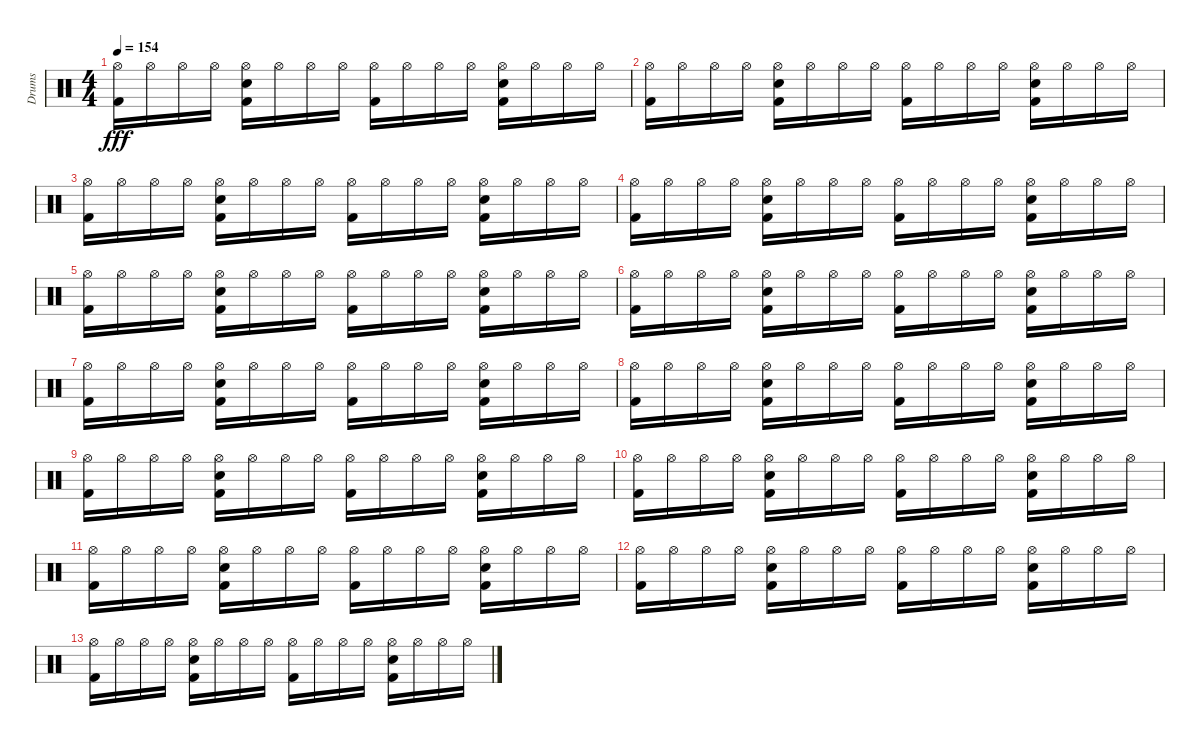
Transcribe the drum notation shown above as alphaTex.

\track ("Drums" "Drums") {instrument percussion}
\staff {score}
\articulation defaults
\ts (4 4)
\tempo 154
\clef neutral
\ks c
("Hi-Hat (open)" "Kick (hit) 2").16{dy fff} "Hi-Hat (open)".16 "Hi-Hat (open)".16 "Hi-Hat (open)".16 ("Hi-Hat (open)" "Snare (hit) 2" "Kick (hit) 2").16 "Hi-Hat (open)".16 "Hi-Hat (open)".16 "Hi-Hat (open)".16 ("Hi-Hat (open)" "Kick (hit) 2").16 "Hi-Hat (open)".16 "Hi-Hat (open)".16 "Hi-Hat (open)".16 ("Hi-Hat (open)" "Snare (hit) 2" "Kick (hit) 2").16 "Hi-Hat (open)".16 "Hi-Hat (open)".16 "Hi-Hat (open)".16 |
("Hi-Hat (open)" "Kick (hit) 2").16 "Hi-Hat (open)".16 "Hi-Hat (open)".16 "Hi-Hat (open)".16 ("Hi-Hat (open)" "Snare (hit) 2" "Kick (hit) 2").16 "Hi-Hat (open)".16 "Hi-Hat (open)".16 "Hi-Hat (open)".16 ("Hi-Hat (open)" "Kick (hit) 2").16 "Hi-Hat (open)".16 "Hi-Hat (open)".16 "Hi-Hat (open)".16 ("Hi-Hat (open)" "Snare (hit) 2" "Kick (hit) 2").16 "Hi-Hat (open)".16 "Hi-Hat (open)".16 "Hi-Hat (open)".16 |
("Hi-Hat (open)" "Kick (hit) 2").16 "Hi-Hat (open)".16 "Hi-Hat (open)".16 "Hi-Hat (open)".16 ("Hi-Hat (open)" "Snare (hit) 2" "Kick (hit) 2").16 "Hi-Hat (open)".16 "Hi-Hat (open)".16 "Hi-Hat (open)".16 ("Hi-Hat (open)" "Kick (hit) 2").16 "Hi-Hat (open)".16 "Hi-Hat (open)".16 "Hi-Hat (open)".16 ("Hi-Hat (open)" "Snare (hit) 2" "Kick (hit) 2").16 "Hi-Hat (open)".16 "Hi-Hat (open)".16 "Hi-Hat (open)".16 |
("Hi-Hat (open)" "Kick (hit) 2").16 "Hi-Hat (open)".16 "Hi-Hat (open)".16 "Hi-Hat (open)".16 ("Hi-Hat (open)" "Snare (hit) 2" "Kick (hit) 2").16 "Hi-Hat (open)".16 "Hi-Hat (open)".16 "Hi-Hat (open)".16 ("Hi-Hat (open)" "Kick (hit) 2").16 "Hi-Hat (open)".16 "Hi-Hat (open)".16 "Hi-Hat (open)".16 ("Hi-Hat (open)" "Snare (hit) 2" "Kick (hit) 2").16 "Hi-Hat (open)".16 "Hi-Hat (open)".16 "Hi-Hat (open)".16 |
("Hi-Hat (open)" "Kick (hit) 2").16 "Hi-Hat (open)".16 "Hi-Hat (open)".16 "Hi-Hat (open)".16 ("Hi-Hat (open)" "Snare (hit) 2" "Kick (hit) 2").16 "Hi-Hat (open)".16 "Hi-Hat (open)".16 "Hi-Hat (open)".16 ("Hi-Hat (open)" "Kick (hit) 2").16 "Hi-Hat (open)".16 "Hi-Hat (open)".16 "Hi-Hat (open)".16 ("Hi-Hat (open)" "Snare (hit) 2" "Kick (hit) 2").16 "Hi-Hat (open)".16 "Hi-Hat (open)".16 "Hi-Hat (open)".16 |
("Hi-Hat (open)" "Kick (hit) 2").16 "Hi-Hat (open)".16 "Hi-Hat (open)".16 "Hi-Hat (open)".16 ("Hi-Hat (open)" "Snare (hit) 2" "Kick (hit) 2").16 "Hi-Hat (open)".16 "Hi-Hat (open)".16 "Hi-Hat (open)".16 ("Hi-Hat (open)" "Kick (hit) 2").16 "Hi-Hat (open)".16 "Hi-Hat (open)".16 "Hi-Hat (open)".16 ("Hi-Hat (open)" "Snare (hit) 2" "Kick (hit) 2").16 "Hi-Hat (open)".16 "Hi-Hat (open)".16 "Hi-Hat (open)".16 |
("Hi-Hat (open)" "Kick (hit) 2").16 "Hi-Hat (open)".16 "Hi-Hat (open)".16 "Hi-Hat (open)".16 ("Hi-Hat (open)" "Snare (hit) 2" "Kick (hit) 2").16 "Hi-Hat (open)".16 "Hi-Hat (open)".16 "Hi-Hat (open)".16 ("Hi-Hat (open)" "Kick (hit) 2").16 "Hi-Hat (open)".16 "Hi-Hat (open)".16 "Hi-Hat (open)".16 ("Hi-Hat (open)" "Snare (hit) 2" "Kick (hit) 2").16 "Hi-Hat (open)".16 "Hi-Hat (open)".16 "Hi-Hat (open)".16 |
("Hi-Hat (open)" "Kick (hit) 2").16 "Hi-Hat (open)".16 "Hi-Hat (open)".16 "Hi-Hat (open)".16 ("Hi-Hat (open)" "Snare (hit) 2" "Kick (hit) 2").16 "Hi-Hat (open)".16 "Hi-Hat (open)".16 "Hi-Hat (open)".16 ("Hi-Hat (open)" "Kick (hit) 2").16 "Hi-Hat (open)".16 "Hi-Hat (open)".16 "Hi-Hat (open)".16 ("Hi-Hat (open)" "Snare (hit) 2" "Kick (hit) 2").16 "Hi-Hat (open)".16 "Hi-Hat (open)".16 "Hi-Hat (open)".16 |
("Hi-Hat (open)" "Kick (hit) 2").16 "Hi-Hat (open)".16 "Hi-Hat (open)".16 "Hi-Hat (open)".16 ("Hi-Hat (open)" "Snare (hit) 2" "Kick (hit) 2").16 "Hi-Hat (open)".16 "Hi-Hat (open)".16 "Hi-Hat (open)".16 ("Hi-Hat (open)" "Kick (hit) 2").16 "Hi-Hat (open)".16 "Hi-Hat (open)".16 "Hi-Hat (open)".16 ("Hi-Hat (open)" "Snare (hit) 2" "Kick (hit) 2").16 "Hi-Hat (open)".16 "Hi-Hat (open)".16 "Hi-Hat (open)".16 |
("Hi-Hat (open)" "Kick (hit) 2").16{volume 13} "Hi-Hat (open)".16 "Hi-Hat (open)".16 "Hi-Hat (open)".16 ("Hi-Hat (open)" "Snare (hit) 2" "Kick (hit) 2").16 "Hi-Hat (open)".16 "Hi-Hat (open)".16 "Hi-Hat (open)".16 ("Hi-Hat (open)" "Kick (hit) 2").16 "Hi-Hat (open)".16 "Hi-Hat (open)".16 "Hi-Hat (open)".16 ("Hi-Hat (open)" "Snare (hit) 2" "Kick (hit) 2").16 "Hi-Hat (open)".16 "Hi-Hat (open)".16 "Hi-Hat (open)".16 |
("Hi-Hat (open)" "Kick (hit) 2").16{volume 11} "Hi-Hat (open)".16 "Hi-Hat (open)".16 "Hi-Hat (open)".16 ("Hi-Hat (open)" "Snare (hit) 2" "Kick (hit) 2").16 "Hi-Hat (open)".16 "Hi-Hat (open)".16 "Hi-Hat (open)".16 ("Hi-Hat (open)" "Kick (hit) 2").16 "Hi-Hat (open)".16 "Hi-Hat (open)".16 "Hi-Hat (open)".16 ("Hi-Hat (open)" "Snare (hit) 2" "Kick (hit) 2").16 "Hi-Hat (open)".16 "Hi-Hat (open)".16 "Hi-Hat (open)".16 |
("Hi-Hat (open)" "Kick (hit) 2").16{volume 9} "Hi-Hat (open)".16 "Hi-Hat (open)".16 "Hi-Hat (open)".16 ("Hi-Hat (open)" "Snare (hit) 2" "Kick (hit) 2").16 "Hi-Hat (open)".16 "Hi-Hat (open)".16 "Hi-Hat (open)".16 ("Hi-Hat (open)" "Kick (hit) 2").16 "Hi-Hat (open)".16 "Hi-Hat (open)".16 "Hi-Hat (open)".16 ("Hi-Hat (open)" "Snare (hit) 2" "Kick (hit) 2").16 "Hi-Hat (open)".16 "Hi-Hat (open)".16 "Hi-Hat (open)".16 |
("Hi-Hat (open)" "Kick (hit) 2").16{volume 5} "Hi-Hat (open)".16 "Hi-Hat (open)".16 "Hi-Hat (open)".16 ("Hi-Hat (open)" "Snare (hit) 2" "Kick (hit) 2").16 "Hi-Hat (open)".16 "Hi-Hat (open)".16 "Hi-Hat (open)".16 ("Hi-Hat (open)" "Kick (hit) 2").16 "Hi-Hat (open)".16 "Hi-Hat (open)".16 "Hi-Hat (open)".16 ("Hi-Hat (open)" "Snare (hit) 2" "Kick (hit) 2").16 "Hi-Hat (open)".16 "Hi-Hat (open)".16 "Hi-Hat (open)".16
